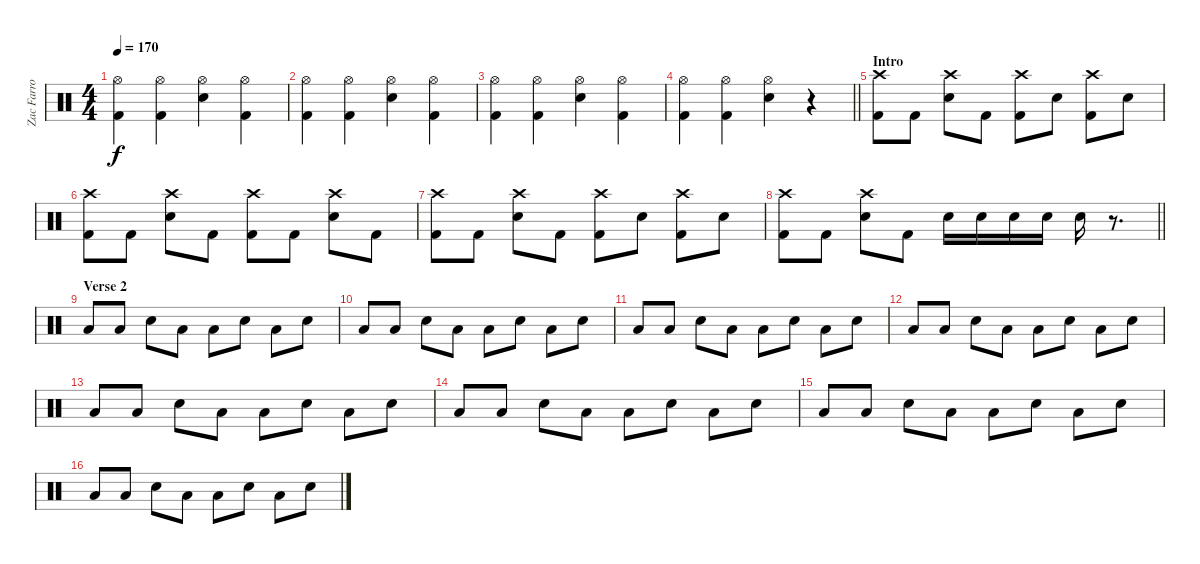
\track ("Zac Farro (Percussion)" "Zac Farro ") {instrument percussion}
\staff {score}
\articulation defaults
\ts (4 4)
\tempo 170
\clef neutral
\ks c
("Hi-Hat (open)" "Kick (hit) 2").4{dy f} ("Hi-Hat (open)" "Kick (hit) 2").4 ("Hi-Hat (open)" "Electric Snare (hit)").4 ("Hi-Hat (open)" "Kick (hit) 2").4 |
("Hi-Hat (open)" "Kick (hit) 2").4 ("Hi-Hat (open)" "Kick (hit) 2").4 ("Hi-Hat (open)" "Electric Snare (hit)").4 ("Hi-Hat (open)" "Kick (hit) 2").4 |
("Hi-Hat (open)" "Kick (hit) 2").4 ("Hi-Hat (open)" "Kick (hit) 2").4 ("Hi-Hat (open)" "Electric Snare (hit)").4 ("Hi-Hat (open)" "Kick (hit) 2").4 |
\barLineRight lightlight
("Hi-Hat (open)" "Kick (hit) 2").4 ("Hi-Hat (open)" "Kick (hit) 2").4 ("Hi-Hat (open)" "Electric Snare (hit)").4 r.4 |
\section ("" "Intro")
("Crash high (hit)" "Kick (hit) 2").8 "Kick (hit) 2".8 ("Crash high (hit)" "Electric Snare (hit)").8 "Kick (hit) 2".8 ("Crash high (hit)" "Kick (hit) 2").8 "Electric Snare (hit)".8 ("Crash high (hit)" "Kick (hit) 2").8 "Electric Snare (hit)".8 |
("Crash high (hit)" "Kick (hit) 2").8 "Kick (hit) 2".8 ("Crash high (hit)" "Electric Snare (hit)").8 "Kick (hit) 2".8 ("Crash high (hit)" "Kick (hit) 2").8 "Kick (hit) 2".8 ("Crash high (hit)" "Electric Snare (hit)").8 "Kick (hit) 2".8 |
("Crash high (hit)" "Kick (hit) 2").8 "Kick (hit) 2".8 ("Crash high (hit)" "Electric Snare (hit)").8 "Kick (hit) 2".8 ("Crash high (hit)" "Kick (hit) 2").8 "Electric Snare (hit)".8 ("Crash high (hit)" "Kick (hit) 2").8 "Electric Snare (hit)".8 |
\barLineRight lightlight
("Crash high (hit)" "Kick (hit) 2").8 "Kick (hit) 2".8 ("Crash high (hit)" "Electric Snare (hit)").8 "Kick (hit) 2".8 "Electric Snare (hit)".16 "Electric Snare (hit)".16 "Electric Snare (hit)".16 "Electric Snare (hit)".16 "Electric Snare (hit)".16 r.8{d} |
\section ("" "Verse 2")
"Low Floor Tom (hit)".8 "Low Floor Tom (hit)".8 "Electric Snare (hit)".8 "Low Floor Tom (hit)".8 "Low Floor Tom (hit)".8 "Electric Snare (hit)".8 "Low Floor Tom (hit)".8 "Electric Snare (hit)".8 |
"Low Floor Tom (hit)".8 "Low Floor Tom (hit)".8 "Electric Snare (hit)".8 "Low Floor Tom (hit)".8 "Low Floor Tom (hit)".8 "Electric Snare (hit)".8 "Low Floor Tom (hit)".8 "Electric Snare (hit)".8 |
"Low Floor Tom (hit)".8 "Low Floor Tom (hit)".8 "Electric Snare (hit)".8 "Low Floor Tom (hit)".8 "Low Floor Tom (hit)".8 "Electric Snare (hit)".8 "Low Floor Tom (hit)".8 "Electric Snare (hit)".8 |
"Low Floor Tom (hit)".8 "Low Floor Tom (hit)".8 "Electric Snare (hit)".8 "Low Floor Tom (hit)".8 "Low Floor Tom (hit)".8 "Electric Snare (hit)".8 "Low Floor Tom (hit)".8 "Electric Snare (hit)".8 |
"Low Floor Tom (hit)".8 "Low Floor Tom (hit)".8 "Electric Snare (hit)".8 "Low Floor Tom (hit)".8 "Low Floor Tom (hit)".8 "Electric Snare (hit)".8 "Low Floor Tom (hit)".8 "Electric Snare (hit)".8 |
"Low Floor Tom (hit)".8 "Low Floor Tom (hit)".8 "Electric Snare (hit)".8 "Low Floor Tom (hit)".8 "Low Floor Tom (hit)".8 "Electric Snare (hit)".8 "Low Floor Tom (hit)".8 "Electric Snare (hit)".8 |
"Low Floor Tom (hit)".8 "Low Floor Tom (hit)".8 "Electric Snare (hit)".8 "Low Floor Tom (hit)".8 "Low Floor Tom (hit)".8 "Electric Snare (hit)".8 "Low Floor Tom (hit)".8 "Electric Snare (hit)".8 |
"Low Floor Tom (hit)".8 "Low Floor Tom (hit)".8 "Electric Snare (hit)".8 "Low Floor Tom (hit)".8 "Low Floor Tom (hit)".8 "Electric Snare (hit)".8 "Low Floor Tom (hit)".8 "Electric Snare (hit)".8
